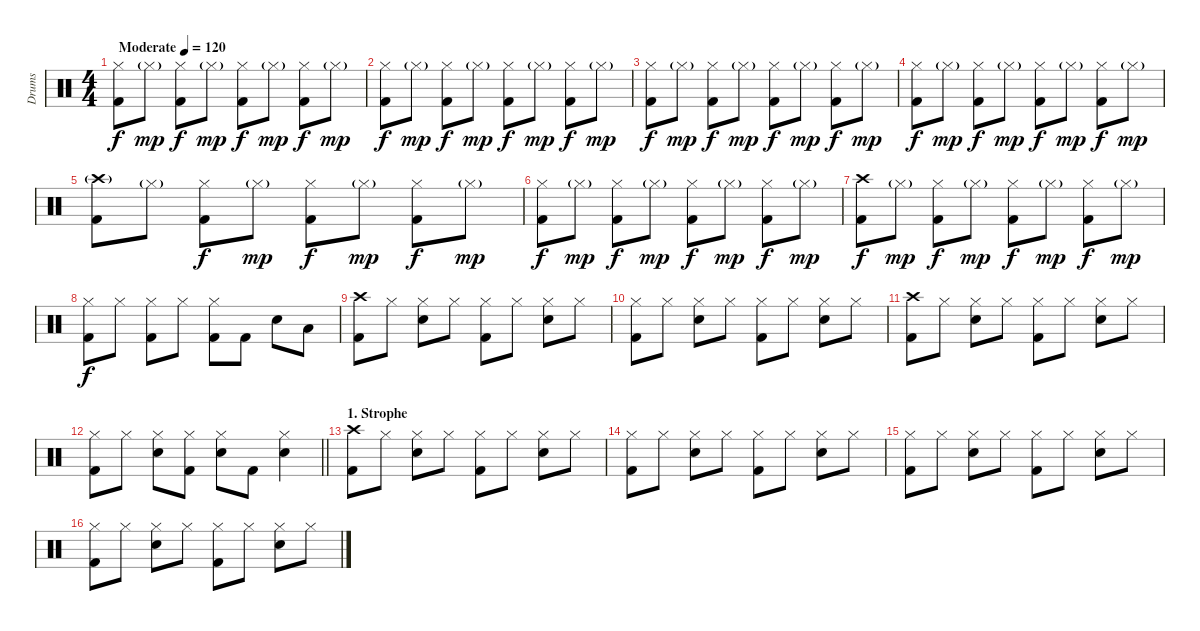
\track ("Drums" "Drums") {instrument percussion}
\staff {score}
\articulation defaults
\ts (4 4)
\tempo (120 "Moderate")
\clef neutral
\ks c
("Hi-Hat (closed)" "Kick (hit) 2").8{dy f} "Hi-Hat (closed)"{g}.8{dy mp} ("Hi-Hat (closed)" "Kick (hit) 2").8{dy f} "Hi-Hat (closed)"{g}.8{dy mp} ("Hi-Hat (closed)" "Kick (hit) 2").8{dy f} "Hi-Hat (closed)"{g}.8{dy mp} ("Hi-Hat (closed)" "Kick (hit) 2").8{dy f} "Hi-Hat (closed)"{g}.8{dy mp} |
("Hi-Hat (closed)" "Kick (hit) 2").8{dy f} "Hi-Hat (closed)"{g}.8{dy mp} ("Hi-Hat (closed)" "Kick (hit) 2").8{dy f} "Hi-Hat (closed)"{g}.8{dy mp} ("Hi-Hat (closed)" "Kick (hit) 2").8{dy f} "Hi-Hat (closed)"{g}.8{dy mp} ("Hi-Hat (closed)" "Kick (hit) 2").8{dy f} "Hi-Hat (closed)"{g}.8{dy mp} |
("Hi-Hat (closed)" "Kick (hit) 2").8{dy f} "Hi-Hat (closed)"{g}.8{dy mp} ("Hi-Hat (closed)" "Kick (hit) 2").8{dy f} "Hi-Hat (closed)"{g}.8{dy mp} ("Hi-Hat (closed)" "Kick (hit) 2").8{dy f} "Hi-Hat (closed)"{g}.8{dy mp} ("Hi-Hat (closed)" "Kick (hit) 2").8{dy f} "Hi-Hat (closed)"{g}.8{dy mp} |
("Hi-Hat (closed)" "Kick (hit) 2").8{dy f} "Hi-Hat (closed)"{g}.8{dy mp} ("Hi-Hat (closed)" "Kick (hit) 2").8{dy f} "Hi-Hat (closed)"{g}.8{dy mp} ("Hi-Hat (closed)" "Kick (hit) 2").8{dy f} "Hi-Hat (closed)"{g}.8{dy mp} ("Hi-Hat (closed)" "Kick (hit) 2").8{dy f} "Hi-Hat (closed)"{g}.8{dy mp} |
("Crash high (hit)"{g} "Kick (hit) 2").8 "Hi-Hat (closed)"{g}.8 ("Hi-Hat (closed)" "Kick (hit) 2").8{dy f} "Hi-Hat (closed)"{g}.8{dy mp} ("Hi-Hat (closed)" "Kick (hit) 2").8{dy f} "Hi-Hat (closed)"{g}.8{dy mp} ("Hi-Hat (closed)" "Kick (hit) 2").8{dy f} "Hi-Hat (closed)"{g}.8{dy mp} |
("Hi-Hat (closed)" "Kick (hit) 2").8{dy f} "Hi-Hat (closed)"{g}.8{dy mp} ("Hi-Hat (closed)" "Kick (hit) 2").8{dy f} "Hi-Hat (closed)"{g}.8{dy mp} ("Hi-Hat (closed)" "Kick (hit) 2").8{dy f} "Hi-Hat (closed)"{g}.8{dy mp} ("Hi-Hat (closed)" "Kick (hit) 2").8{dy f} "Hi-Hat (closed)"{g}.8{dy mp} |
("Crash high (hit)" "Kick (hit) 2").8{dy f} "Hi-Hat (closed)"{g}.8{dy mp} ("Hi-Hat (closed)" "Kick (hit) 2").8{dy f} "Hi-Hat (closed)"{g}.8{dy mp} ("Hi-Hat (closed)" "Kick (hit) 2").8{dy f} "Hi-Hat (closed)"{g}.8{dy mp} ("Hi-Hat (closed)" "Kick (hit) 2").8{dy f} "Hi-Hat (closed)"{g}.8{dy mp} |
("Hi-Hat (closed)" "Kick (hit) 2").8{dy f} "Hi-Hat (closed)".8 ("Hi-Hat (closed)" "Kick (hit) 2").8 "Hi-Hat (closed)".8 ("Hi-Hat (closed)" "Kick (hit) 2").8 "Kick (hit) 2".8 "Snare (hit) 2".8 "Low Tom (hit)".8 |
("Crash high (hit)" "Kick (hit) 2").8 "Hi-Hat (closed)".8 ("Hi-Hat (closed)" "Snare (hit) 2").8 "Hi-Hat (closed)".8 ("Hi-Hat (closed)" "Kick (hit) 2").8 "Hi-Hat (closed)".8 ("Hi-Hat (closed)" "Snare (hit) 2").8 "Hi-Hat (closed)".8 |
("Hi-Hat (closed)" "Kick (hit) 2").8 "Hi-Hat (closed)".8 ("Hi-Hat (closed)" "Snare (hit) 2").8 "Hi-Hat (closed)".8 ("Hi-Hat (closed)" "Kick (hit) 2").8 "Hi-Hat (closed)".8 ("Hi-Hat (closed)" "Snare (hit) 2").8 "Hi-Hat (closed)".8 |
("Crash high (hit)" "Kick (hit) 2").8 "Hi-Hat (closed)".8 ("Hi-Hat (closed)" "Snare (hit) 2").8 "Hi-Hat (closed)".8 ("Hi-Hat (closed)" "Kick (hit) 2").8 "Hi-Hat (closed)".8 ("Hi-Hat (closed)" "Snare (hit) 2").8 "Hi-Hat (closed)".8 |
\barLineRight lightlight
("Hi-Hat (closed)" "Kick (hit) 2").8 "Hi-Hat (closed)".8 ("Hi-Hat (closed)" "Snare (hit) 2").8 ("Hi-Hat (closed)" "Kick (hit) 2").8 ("Hi-Hat (closed)" "Snare (hit) 2").8 "Kick (hit) 2".8 ("Hi-Hat (closed)" "Snare (hit) 2").4 |
\section ("" "1. Strophe")
("Crash high (hit)" "Kick (hit) 2").8 "Hi-Hat (closed)".8 ("Hi-Hat (closed)" "Snare (hit) 2").8 "Hi-Hat (closed)".8 ("Hi-Hat (closed)" "Kick (hit) 2").8 "Hi-Hat (closed)".8 ("Hi-Hat (closed)" "Snare (hit) 2").8 "Hi-Hat (closed)".8 |
("Hi-Hat (closed)" "Kick (hit) 2").8 "Hi-Hat (closed)".8 ("Hi-Hat (closed)" "Snare (hit) 2").8 "Hi-Hat (closed)".8 ("Hi-Hat (closed)" "Kick (hit) 2").8 "Hi-Hat (closed)".8 ("Hi-Hat (closed)" "Snare (hit) 2").8 "Hi-Hat (closed)".8 |
("Hi-Hat (closed)" "Kick (hit) 2").8 "Hi-Hat (closed)".8 ("Hi-Hat (closed)" "Snare (hit) 2").8 "Hi-Hat (closed)".8 ("Hi-Hat (closed)" "Kick (hit) 2").8 "Hi-Hat (closed)".8 ("Hi-Hat (closed)" "Snare (hit) 2").8 "Hi-Hat (closed)".8 |
("Hi-Hat (closed)" "Kick (hit) 2").8 "Hi-Hat (closed)".8 ("Hi-Hat (closed)" "Snare (hit) 2").8 "Hi-Hat (closed)".8 ("Hi-Hat (closed)" "Kick (hit) 2").8 "Hi-Hat (closed)".8 ("Hi-Hat (closed)" "Snare (hit) 2").8 "Hi-Hat (closed)".8
